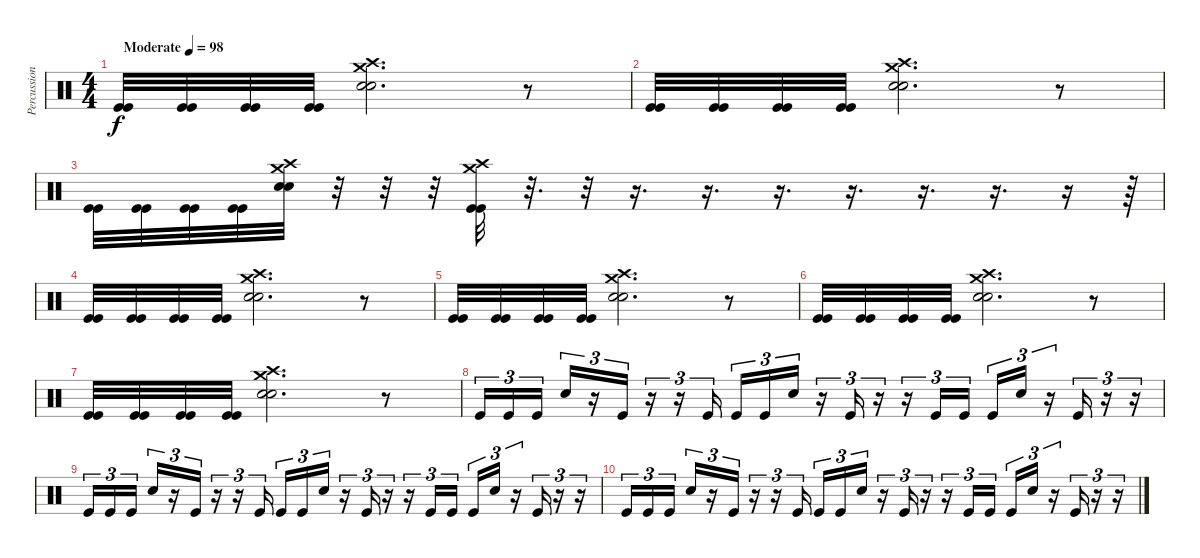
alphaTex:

\track ("Percussion" "Percussion") {instrument percussion}
\staff {score}
\articulation defaults
\ts (4 4)
\tempo (98 "Moderate")
\clef neutral
\ks c
("Kick (hit)" "Kick (hit)").32{dy f} ("Kick (hit)" "Kick (hit)").32 ("Kick (hit)" "Kick (hit)").32 ("Kick (hit)" "Kick (hit)").32 ("Crash medium (hit)" "Crash high (hit)" "Snare (hit) 2" "Electric Snare (hit)").2{d} r.8 |
("Kick (hit)" "Kick (hit)").32 ("Kick (hit)" "Kick (hit)").32 ("Kick (hit)" "Kick (hit)").32 ("Kick (hit)" "Kick (hit)").32 ("Crash medium (hit)" "Crash high (hit)" "Snare (hit) 2" "Electric Snare (hit)").2{d} r.8 |
("Kick (hit)" "Kick (hit)").32 ("Kick (hit)" "Kick (hit)").32 ("Kick (hit)" "Kick (hit)").32 ("Kick (hit)" "Kick (hit)").32 ("Crash high (hit)" "Crash medium (hit)" "Electric Snare (hit)" "Snare (hit) 2").32 r.32 r.32 r.32 ("Crash medium (hit)" "Crash high (hit)" "Kick (hit)" "Kick (hit)").32 r.32{d} r.32 r.16{d} r.16{d} r.16{d} r.16{d} r.16{d} r.16{d} r.16 r.64 |
("Kick (hit)" "Kick (hit)").32 ("Kick (hit)" "Kick (hit)").32 ("Kick (hit)" "Kick (hit)").32 ("Kick (hit)" "Kick (hit)").32 ("Crash medium (hit)" "Crash high (hit)" "Snare (hit) 2" "Electric Snare (hit)").2{d} r.8 |
("Kick (hit)" "Kick (hit)").32 ("Kick (hit)" "Kick (hit)").32 ("Kick (hit)" "Kick (hit)").32 ("Kick (hit)" "Kick (hit)").32 ("Crash medium (hit)" "Crash high (hit)" "Snare (hit) 2" "Electric Snare (hit)").2{d} r.8 |
("Kick (hit)" "Kick (hit)").32 ("Kick (hit)" "Kick (hit)").32 ("Kick (hit)" "Kick (hit)").32 ("Kick (hit)" "Kick (hit)").32 ("Crash medium (hit)" "Crash high (hit)" "Snare (hit) 2" "Electric Snare (hit)").2{d} r.8 |
("Kick (hit)" "Kick (hit)").32 ("Kick (hit)" "Kick (hit)").32 ("Kick (hit)" "Kick (hit)").32 ("Kick (hit)" "Kick (hit)").32 ("Crash medium (hit)" "Crash high (hit)" "Snare (hit) 2" "Electric Snare (hit)").2{d} r.8 |
"Kick (hit)".16{tu (3 2)} "Kick (hit)".16{tu (3 2)} "Kick (hit)".16{tu (3 2) beam splitsecondary} "Electric Snare (hit)".16{tu (3 2)} r.16{tu (3 2)} "Kick (hit)".16{tu (3 2)} r.16{tu (3 2)} r.16{tu (3 2)} "Kick (hit)".16{tu (3 2) beam splitsecondary} "Kick (hit)".16{tu (3 2)} "Kick (hit)".16{tu (3 2)} "Snare (hit) 2".16{tu (3 2)} r.16{tu (3 2)} "Kick (hit)".16{tu (3 2)} r.16{tu (3 2)} r.16{tu (3 2)} "Kick (hit)".16{tu (3 2)} "Kick (hit)".16{tu (3 2)} "Kick (hit)".16{tu (3 2)} "Electric Snare (hit)".16{tu (3 2)} r.16{tu (3 2)} "Kick (hit)".16{tu (3 2)} r.16{tu (3 2)} r.16{tu (3 2)} |
"Kick (hit)".16{tu (3 2)} "Kick (hit)".16{tu (3 2)} "Kick (hit)".16{tu (3 2) beam splitsecondary} "Snare (hit) 2".16{tu (3 2)} r.16{tu (3 2)} "Kick (hit)".16{tu (3 2)} r.16{tu (3 2)} r.16{tu (3 2)} "Kick (hit)".16{tu (3 2) beam splitsecondary} "Kick (hit)".16{tu (3 2)} "Kick (hit)".16{tu (3 2)} "Electric Snare (hit)".16{tu (3 2)} r.16{tu (3 2)} "Kick (hit)".16{tu (3 2)} r.16{tu (3 2)} r.16{tu (3 2)} "Kick (hit)".16{tu (3 2)} "Kick (hit)".16{tu (3 2)} "Kick (hit)".16{tu (3 2)} "Snare (hit) 2".16{tu (3 2)} r.16{tu (3 2)} "Kick (hit)".16{tu (3 2)} r.16{tu (3 2)} r.16{tu (3 2)} |
"Kick (hit)".16{tu (3 2)} "Kick (hit)".16{tu (3 2)} "Kick (hit)".16{tu (3 2) beam splitsecondary} "Electric Snare (hit)".16{tu (3 2)} r.16{tu (3 2)} "Kick (hit)".16{tu (3 2)} r.16{tu (3 2)} r.16{tu (3 2)} "Kick (hit)".16{tu (3 2) beam splitsecondary} "Kick (hit)".16{tu (3 2)} "Kick (hit)".16{tu (3 2)} "Snare (hit) 2".16{tu (3 2)} r.16{tu (3 2)} "Kick (hit)".16{tu (3 2)} r.16{tu (3 2)} r.16{tu (3 2)} "Kick (hit)".16{tu (3 2)} "Kick (hit)".16{tu (3 2)} "Kick (hit)".16{tu (3 2)} "Electric Snare (hit)".16{tu (3 2)} r.16{tu (3 2)} "Kick (hit)".16{tu (3 2)} r.16{tu (3 2)} r.16{tu (3 2)}
